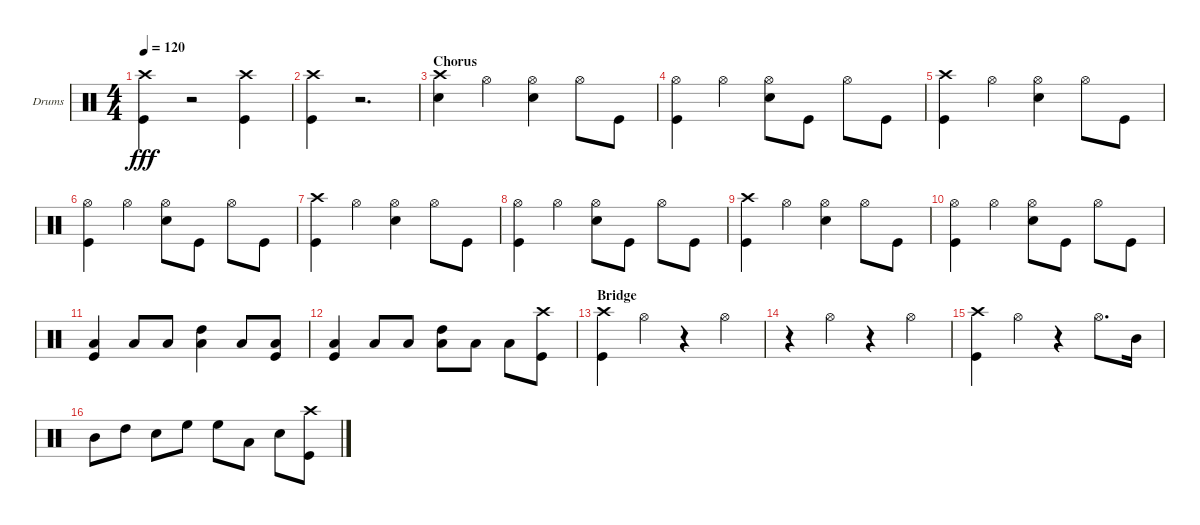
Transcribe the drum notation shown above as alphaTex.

\bracketExtendMode groupsimilarinstruments
\firstSystemTrackNameOrientation horizontal
\otherSystemsTrackNameOrientation horizontal
\track ("Drumkit" "Drums") {instrument percussion}
\staff {score}
\articulation defaults
\ts (4 4)
\tempo 120
\clef neutral
\ks c
("Crash high (hit)" "Kick (hit)").4{dy fff} r.2 ("Kick (hit)" "Crash high (hit)").4 |
("Crash high (hit)" "Kick (hit)").4 r.2{d} |
\section ("" "Chorus")
("Snare (hit) 2" "Crash high (hit)").4 "Hi-Hat (open)".4 ("Snare (hit) 2" "Hi-Hat (open)").4 "Hi-Hat (open)".8 "Kick (hit)".8 |
("Hi-Hat (open)" "Kick (hit)").4 "Hi-Hat (open)".4 ("Snare (hit) 2" "Hi-Hat (open)").8 "Kick (hit)".8 "Hi-Hat (open)".8 "Kick (hit)".8 |
("Kick (hit)" "Crash high (hit)").4 "Hi-Hat (open)".4 ("Snare (hit) 2" "Hi-Hat (open)").4 "Hi-Hat (open)".8 "Kick (hit)".8 |
("Hi-Hat (open)" "Kick (hit)").4 "Hi-Hat (open)".4 ("Snare (hit) 2" "Hi-Hat (open)").8 "Kick (hit)".8 "Hi-Hat (open)".8 "Kick (hit)".8 |
("Kick (hit)" "Crash high (hit)").4 "Hi-Hat (open)".4 ("Snare (hit) 2" "Hi-Hat (open)").4 "Hi-Hat (open)".8 "Kick (hit)".8 |
("Hi-Hat (open)" "Kick (hit)").4 "Hi-Hat (open)".4 ("Snare (hit) 2" "Hi-Hat (open)").8 "Kick (hit)".8 "Hi-Hat (open)".8 "Kick (hit)".8 |
("Kick (hit)" "Crash high (hit)").4 "Hi-Hat (open)".4 ("Snare (hit) 2" "Hi-Hat (open)").4 "Hi-Hat (open)".8 "Kick (hit)".8 |
("Hi-Hat (open)" "Kick (hit)").4 "Hi-Hat (open)".4 ("Snare (hit) 2" "Hi-Hat (open)").8 "Kick (hit)".8 "Hi-Hat (open)".8 "Kick (hit)".8 |
("Kick (hit)" "Low Tom (hit)").4 "Low Tom (hit)".8 "Low Tom (hit)".8 ("High Tom (hit)" "Low Tom (hit)").4 "Low Tom (hit)".8 ("Kick (hit)" "Low Tom (hit)").8 |
("Kick (hit)" "Low Tom (hit)").4 "Low Tom (hit)".8 "Low Tom (hit)".8 ("Low Tom (hit)" "High Tom (hit)").8 "Low Tom (hit)".8 "Low Tom (hit)".8 ("Kick (hit)" "Crash high (hit)").8 |
\section ("" "Bridge")
("Crash high (hit)" "Kick (hit)").4 "Hi-Hat (open)".4 r.4 "Hi-Hat (open)".4 |
r.4 "Hi-Hat (open)".4 r.4 "Hi-Hat (open)".4 |
("Kick (hit)" "Crash high (hit)").4 "Hi-Hat (open)".4 r.4 "Hi-Hat (open)".8{d} "Mid Tom (hit)".16 |
"Mid Tom (hit)".8 "High Tom (hit)".8 "Snare (hit) 2".8 "High Floor Tom (hit)".8 "High Floor Tom (hit)".8 "Low Tom (hit)".8 "Snare (hit) 2".8 ("Crash high (hit)" "Kick (hit)").8
